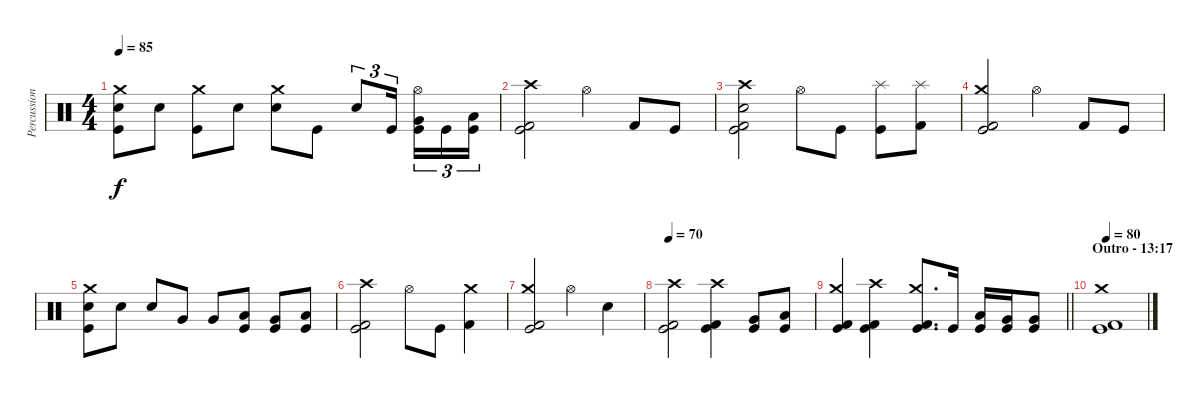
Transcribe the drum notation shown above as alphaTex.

\track ("Percussion" "Percussion") {instrument percussion}
\staff {score}
\articulation defaults
\ts (4 4)
\tempo 85
\clef neutral
\ks c
("Kick (hit)" "Snare (hit) 2" "Crash medium (hit)").8{dy f} "Snare (hit) 2".8 ("Kick (hit)" "Crash medium (hit)").8 "Snare (hit) 2".8 ("Snare (hit) 2" "Crash medium (hit)").8 "Kick (hit)".8 "Snare (hit) 2".8{tu (3 2)} "Kick (hit)".16{tu (3 2) beam splitsecondary} ("Kick (hit)" "Very Low Tom (hit)" "Hi-Hat (open)").16{tu (3 2)} "Kick (hit)".16{tu (3 2)} ("Kick (hit)" "Low Floor Tom (hit)").16{tu (3 2)} |
("Kick (hit)" "Kick (hit) 2" "Crash high (hit)").2 "Hi-Hat (open)".4 "Kick (hit) 2".8 "Kick (hit)".8 |
("Kick (hit)" "Kick (hit) 2" "Snare (hit) 2" "Crash high (hit)").2 "Hi-Hat (open)".8 "Kick (hit)".8 ("Kick (hit)" "Splash (hit)").8 ("Kick (hit) 2" "Splash (hit)").8 |
("Kick (hit)" "Kick (hit) 2" "Crash medium (hit)").2 "Hi-Hat (open)".4 "Kick (hit) 2".8 "Kick (hit)".8 |
("Kick (hit)" "Snare (hit) 2" "Crash medium (hit)").8 "Snare (hit) 2".8 "Snare (hit) 2".8 "Very Low Tom (hit)".8 "Very Low Tom (hit)".8 ("Kick (hit)" "Low Floor Tom (hit)").8 ("Kick (hit)" "Very Low Tom (hit)").8 ("Kick (hit)" "Low Floor Tom (hit)").8 |
("Kick (hit)" "Kick (hit) 2" "Crash high (hit)").2 "Hi-Hat (open)".8 "Kick (hit)".8 ("Kick (hit) 2" "Crash medium (hit)").4 |
("Kick (hit)" "Kick (hit) 2" "Crash medium (hit)").2 "Hi-Hat (open)".4 "Snare (hit) 2".4 |
\tempo 70
("Kick (hit)" "Kick (hit) 2" "Crash high (hit)").2 ("Kick (hit)" "Kick (hit) 2" "Crash high (hit)").4 ("Kick (hit)" "Very Low Tom (hit)").8 ("Kick (hit)" "Low Floor Tom (hit)").8 |
\barLineRight lightlight
("Kick (hit)" "Kick (hit) 2" "Crash medium (hit)").4 ("Kick (hit)" "Kick (hit) 2" "Crash high (hit)").4 ("Kick (hit)" "Kick (hit) 2" "Crash medium (hit)").8{d} "Kick (hit)".16 ("Kick (hit)" "Low Floor Tom (hit)").16 ("Kick (hit)" "Very Low Tom (hit)").16 ("Kick (hit)" "Very Low Tom (hit)").8 |
\section ("" "Outro - 13:17")
\tempo 80
("Kick (hit)" "Kick (hit) 2" "Crash medium (hit)").1
